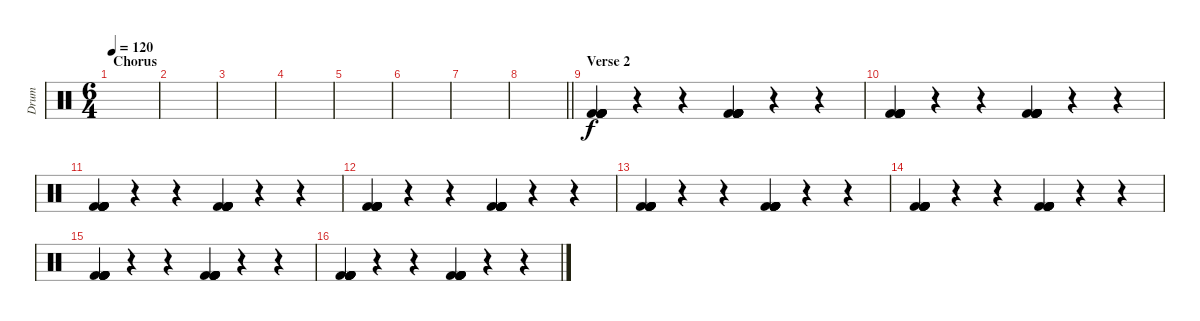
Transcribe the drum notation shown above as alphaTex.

\track ("Drum" "Drum") {instrument percussion}
\staff {score}
\articulation defaults
\ts (6 4)
\section ("" "Chorus")
\tempo 120
\clef neutral
\ks c
|
|
|
|
|
|
|
\barLineRight lightlight
|
\section ("" "Verse 2")
("Kick (hit) 2" "Kick (hit) 2" "Kick (hit) 2" "Kick (hit) 2" "Kick (hit) 2" "Kick (hit) 2").4 r.4 r.4 ("Kick (hit) 2" "Kick (hit) 2" "Kick (hit) 2" "Kick (hit) 2" "Kick (hit) 2" "Kick (hit) 2").4 r.4 r.4 |
("Kick (hit) 2" "Kick (hit) 2" "Kick (hit) 2" "Kick (hit) 2" "Kick (hit) 2" "Kick (hit) 2").4 r.4 r.4 ("Kick (hit) 2" "Kick (hit) 2" "Kick (hit) 2" "Kick (hit) 2" "Kick (hit) 2" "Kick (hit) 2").4 r.4 r.4 |
("Kick (hit) 2" "Kick (hit) 2" "Kick (hit) 2" "Kick (hit) 2" "Kick (hit) 2" "Kick (hit) 2").4 r.4 r.4 ("Kick (hit) 2" "Kick (hit) 2" "Kick (hit) 2" "Kick (hit) 2" "Kick (hit) 2" "Kick (hit) 2").4 r.4 r.4 |
("Kick (hit) 2" "Kick (hit) 2" "Kick (hit) 2" "Kick (hit) 2" "Kick (hit) 2" "Kick (hit) 2").4 r.4 r.4 ("Kick (hit) 2" "Kick (hit) 2" "Kick (hit) 2" "Kick (hit) 2" "Kick (hit) 2" "Kick (hit) 2").4 r.4 r.4 |
("Kick (hit) 2" "Kick (hit) 2" "Kick (hit) 2" "Kick (hit) 2" "Kick (hit) 2" "Kick (hit) 2").4 r.4 r.4 ("Kick (hit) 2" "Kick (hit) 2" "Kick (hit) 2" "Kick (hit) 2" "Kick (hit) 2" "Kick (hit) 2").4 r.4 r.4 |
("Kick (hit) 2" "Kick (hit) 2" "Kick (hit) 2" "Kick (hit) 2" "Kick (hit) 2" "Kick (hit) 2").4 r.4 r.4 ("Kick (hit) 2" "Kick (hit) 2" "Kick (hit) 2" "Kick (hit) 2" "Kick (hit) 2" "Kick (hit) 2").4 r.4 r.4 |
("Kick (hit) 2" "Kick (hit) 2" "Kick (hit) 2" "Kick (hit) 2" "Kick (hit) 2" "Kick (hit) 2").4 r.4 r.4 ("Kick (hit) 2" "Kick (hit) 2" "Kick (hit) 2" "Kick (hit) 2" "Kick (hit) 2" "Kick (hit) 2").4 r.4 r.4 |
("Kick (hit) 2" "Kick (hit) 2" "Kick (hit) 2" "Kick (hit) 2" "Kick (hit) 2" "Kick (hit) 2").4 r.4 r.4 ("Kick (hit) 2" "Kick (hit) 2" "Kick (hit) 2" "Kick (hit) 2" "Kick (hit) 2" "Kick (hit) 2").4 r.4 r.4
